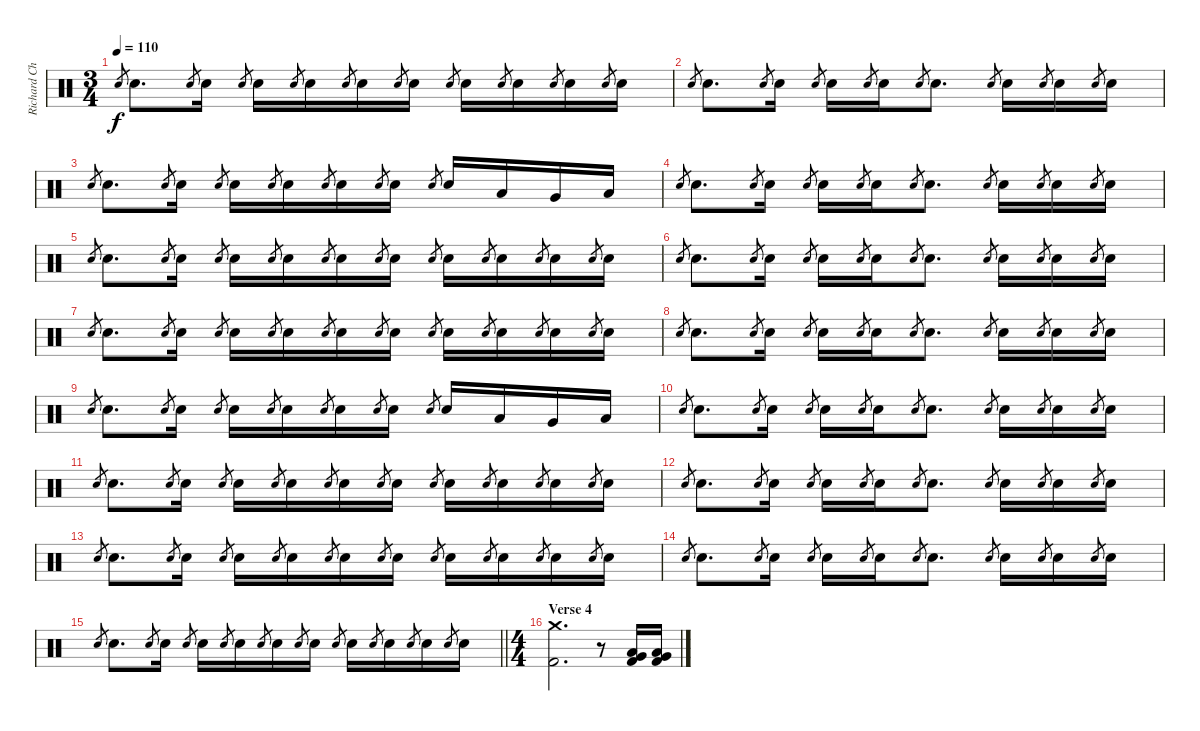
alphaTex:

\track ("Richard Christy" "Richard Ch") {instrument percussion}
\staff {score}
\articulation defaults
\ts (3 4)
\tempo 110
\clef neutral
\ks c "Electric Snare (hit)".8{gr dy f} "Electric Snare (hit)".8{d} "Electric Snare (hit)".8{gr} "Electric Snare (hit)".16 "Electric Snare (hit)".8{gr} "Electric Snare (hit)".16 "Electric Snare (hit)".8{gr} "Electric Snare (hit)".16 "Electric Snare (hit)".8{gr} "Electric Snare (hit)".16 "Electric Snare (hit)".8{gr} "Electric Snare (hit)".16 "Electric Snare (hit)".8{gr} "Electric Snare (hit)".16 "Electric Snare (hit)".8{gr} "Electric Snare (hit)".16 "Electric Snare (hit)".8{gr} "Electric Snare (hit)".16 "Electric Snare (hit)".8{gr} "Electric Snare (hit)".16
|
"Electric Snare (hit)".8{gr} "Electric Snare (hit)".8{d} "Electric Snare (hit)".8{gr} "Electric Snare (hit)".16 "Electric Snare (hit)".8{gr} "Electric Snare (hit)".16 "Electric Snare (hit)".8{gr} "Electric Snare (hit)".16 "Electric Snare (hit)".8{gr} "Electric Snare (hit)".8{d} "Electric Snare (hit)".8{gr} "Electric Snare (hit)".16 "Electric Snare (hit)".8{gr} "Electric Snare (hit)".16 "Electric Snare (hit)".8{gr} "Electric Snare (hit)".16 |
"Electric Snare (hit)".8{gr} "Electric Snare (hit)".8{d} "Electric Snare (hit)".8{gr} "Electric Snare (hit)".16 "Electric Snare (hit)".8{gr} "Electric Snare (hit)".16 "Electric Snare (hit)".8{gr} "Electric Snare (hit)".16 "Electric Snare (hit)".8{gr} "Electric Snare (hit)".16 "Electric Snare (hit)".8{gr} "Electric Snare (hit)".16 "Electric Snare (hit)".8{gr} "Electric Snare (hit)".16 "Low Tom (hit)".16 "Very Low Tom (hit)".16 "Low Floor Tom (hit)".16 |
"Electric Snare (hit)".8{gr} "Electric Snare (hit)".8{d} "Electric Snare (hit)".8{gr} "Electric Snare (hit)".16 "Electric Snare (hit)".8{gr} "Electric Snare (hit)".16 "Electric Snare (hit)".8{gr} "Electric Snare (hit)".16 "Electric Snare (hit)".8{gr} "Electric Snare (hit)".8{d} "Electric Snare (hit)".8{gr} "Electric Snare (hit)".16 "Electric Snare (hit)".8{gr} "Electric Snare (hit)".16 "Electric Snare (hit)".8{gr} "Electric Snare (hit)".16 |
"Electric Snare (hit)".8{gr} "Electric Snare (hit)".8{d} "Electric Snare (hit)".8{gr} "Electric Snare (hit)".16 "Electric Snare (hit)".8{gr} "Electric Snare (hit)".16 "Electric Snare (hit)".8{gr} "Electric Snare (hit)".16 "Electric Snare (hit)".8{gr} "Electric Snare (hit)".16 "Electric Snare (hit)".8{gr} "Electric Snare (hit)".16 "Electric Snare (hit)".8{gr} "Electric Snare (hit)".16 "Electric Snare (hit)".8{gr} "Electric Snare (hit)".16 "Electric Snare (hit)".8{gr} "Electric Snare (hit)".16 "Electric Snare (hit)".8{gr} "Electric Snare (hit)".16 |
"Electric Snare (hit)".8{gr} "Electric Snare (hit)".8{d} "Electric Snare (hit)".8{gr} "Electric Snare (hit)".16 "Electric Snare (hit)".8{gr} "Electric Snare (hit)".16 "Electric Snare (hit)".8{gr} "Electric Snare (hit)".16 "Electric Snare (hit)".8{gr} "Electric Snare (hit)".8{d} "Electric Snare (hit)".8{gr} "Electric Snare (hit)".16 "Electric Snare (hit)".8{gr} "Electric Snare (hit)".16 "Electric Snare (hit)".8{gr} "Electric Snare (hit)".16 |
"Electric Snare (hit)".8{gr} "Electric Snare (hit)".8{d} "Electric Snare (hit)".8{gr} "Electric Snare (hit)".16 "Electric Snare (hit)".8{gr} "Electric Snare (hit)".16 "Electric Snare (hit)".8{gr} "Electric Snare (hit)".16 "Electric Snare (hit)".8{gr} "Electric Snare (hit)".16 "Electric Snare (hit)".8{gr} "Electric Snare (hit)".16 "Electric Snare (hit)".8{gr} "Electric Snare (hit)".16 "Electric Snare (hit)".8{gr} "Electric Snare (hit)".16 "Electric Snare (hit)".8{gr} "Electric Snare (hit)".16 "Electric Snare (hit)".8{gr} "Electric Snare (hit)".16 |
"Electric Snare (hit)".8{gr} "Electric Snare (hit)".8{d} "Electric Snare (hit)".8{gr} "Electric Snare (hit)".16 "Electric Snare (hit)".8{gr} "Electric Snare (hit)".16 "Electric Snare (hit)".8{gr} "Electric Snare (hit)".16 "Electric Snare (hit)".8{gr} "Electric Snare (hit)".8{d} "Electric Snare (hit)".8{gr} "Electric Snare (hit)".16 "Electric Snare (hit)".8{gr} "Electric Snare (hit)".16 "Electric Snare (hit)".8{gr} "Electric Snare (hit)".16 |
"Electric Snare (hit)".8{gr} "Electric Snare (hit)".8{d} "Electric Snare (hit)".8{gr} "Electric Snare (hit)".16 "Electric Snare (hit)".8{gr} "Electric Snare (hit)".16 "Electric Snare (hit)".8{gr} "Electric Snare (hit)".16 "Electric Snare (hit)".8{gr} "Electric Snare (hit)".16 "Electric Snare (hit)".8{gr} "Electric Snare (hit)".16 "Electric Snare (hit)".8{gr} "Electric Snare (hit)".16 "Low Tom (hit)".16 "Very Low Tom (hit)".16 "Low Floor Tom (hit)".16 |
"Electric Snare (hit)".8{gr} "Electric Snare (hit)".8{d} "Electric Snare (hit)".8{gr} "Electric Snare (hit)".16 "Electric Snare (hit)".8{gr} "Electric Snare (hit)".16 "Electric Snare (hit)".8{gr} "Electric Snare (hit)".16 "Electric Snare (hit)".8{gr} "Electric Snare (hit)".8{d} "Electric Snare (hit)".8{gr} "Electric Snare (hit)".16 "Electric Snare (hit)".8{gr} "Electric Snare (hit)".16 "Electric Snare (hit)".8{gr} "Electric Snare (hit)".16 |
"Electric Snare (hit)".8{gr} "Electric Snare (hit)".8{d} "Electric Snare (hit)".8{gr} "Electric Snare (hit)".16 "Electric Snare (hit)".8{gr} "Electric Snare (hit)".16 "Electric Snare (hit)".8{gr} "Electric Snare (hit)".16 "Electric Snare (hit)".8{gr} "Electric Snare (hit)".16 "Electric Snare (hit)".8{gr} "Electric Snare (hit)".16 "Electric Snare (hit)".8{gr} "Electric Snare (hit)".16 "Electric Snare (hit)".8{gr} "Electric Snare (hit)".16 "Electric Snare (hit)".8{gr} "Electric Snare (hit)".16 "Electric Snare (hit)".8{gr} "Electric Snare (hit)".16 |
"Electric Snare (hit)".8{gr} "Electric Snare (hit)".8{d} "Electric Snare (hit)".8{gr} "Electric Snare (hit)".16 "Electric Snare (hit)".8{gr} "Electric Snare (hit)".16 "Electric Snare (hit)".8{gr} "Electric Snare (hit)".16 "Electric Snare (hit)".8{gr} "Electric Snare (hit)".8{d} "Electric Snare (hit)".8{gr} "Electric Snare (hit)".16 "Electric Snare (hit)".8{gr} "Electric Snare (hit)".16 "Electric Snare (hit)".8{gr} "Electric Snare (hit)".16 |
"Electric Snare (hit)".8{gr} "Electric Snare (hit)".8{d} "Electric Snare (hit)".8{gr} "Electric Snare (hit)".16 "Electric Snare (hit)".8{gr} "Electric Snare (hit)".16 "Electric Snare (hit)".8{gr} "Electric Snare (hit)".16 "Electric Snare (hit)".8{gr} "Electric Snare (hit)".16 "Electric Snare (hit)".8{gr} "Electric Snare (hit)".16 "Electric Snare (hit)".8{gr} "Electric Snare (hit)".16 "Electric Snare (hit)".8{gr} "Electric Snare (hit)".16 "Electric Snare (hit)".8{gr} "Electric Snare (hit)".16 "Electric Snare (hit)".8{gr} "Electric Snare (hit)".16 |
"Electric Snare (hit)".8{gr} "Electric Snare (hit)".8{d} "Electric Snare (hit)".8{gr} "Electric Snare (hit)".16 "Electric Snare (hit)".8{gr} "Electric Snare (hit)".16 "Electric Snare (hit)".8{gr} "Electric Snare (hit)".16 "Electric Snare (hit)".8{gr} "Electric Snare (hit)".8{d} "Electric Snare (hit)".8{gr} "Electric Snare (hit)".16 "Electric Snare (hit)".8{gr} "Electric Snare (hit)".16 "Electric Snare (hit)".8{gr} "Electric Snare (hit)".16 |
\barLineRight lightlight "Electric Snare (hit)".8{gr} "Electric Snare (hit)".8{d} "Electric Snare (hit)".8{gr} "Electric Snare (hit)".16 "Electric Snare (hit)".8{gr} "Electric Snare (hit)".16 "Electric Snare (hit)".8{gr} "Electric Snare (hit)".16 "Electric Snare (hit)".8{gr} "Electric Snare (hit)".16 "Electric Snare (hit)".8{gr} "Electric Snare (hit)".16 "Electric Snare (hit)".8{gr} "Electric Snare (hit)".16 "Electric Snare (hit)".8{gr} "Electric Snare (hit)".16 "Electric Snare (hit)".8{gr} "Electric Snare (hit)".16 "Electric Snare (hit)".8{gr} "Electric Snare (hit)".16
|
\ts (4 4)
\section ("" "Verse 4")
("Crash medium (hit)" "Kick (hit) 2").2{d} r.8 ("Very Low Tom (hit)" "Low Floor Tom (hit)" "Kick (hit) 2").16 ("Very Low Tom (hit)" "Low Floor Tom (hit)" "Kick (hit) 2").16
